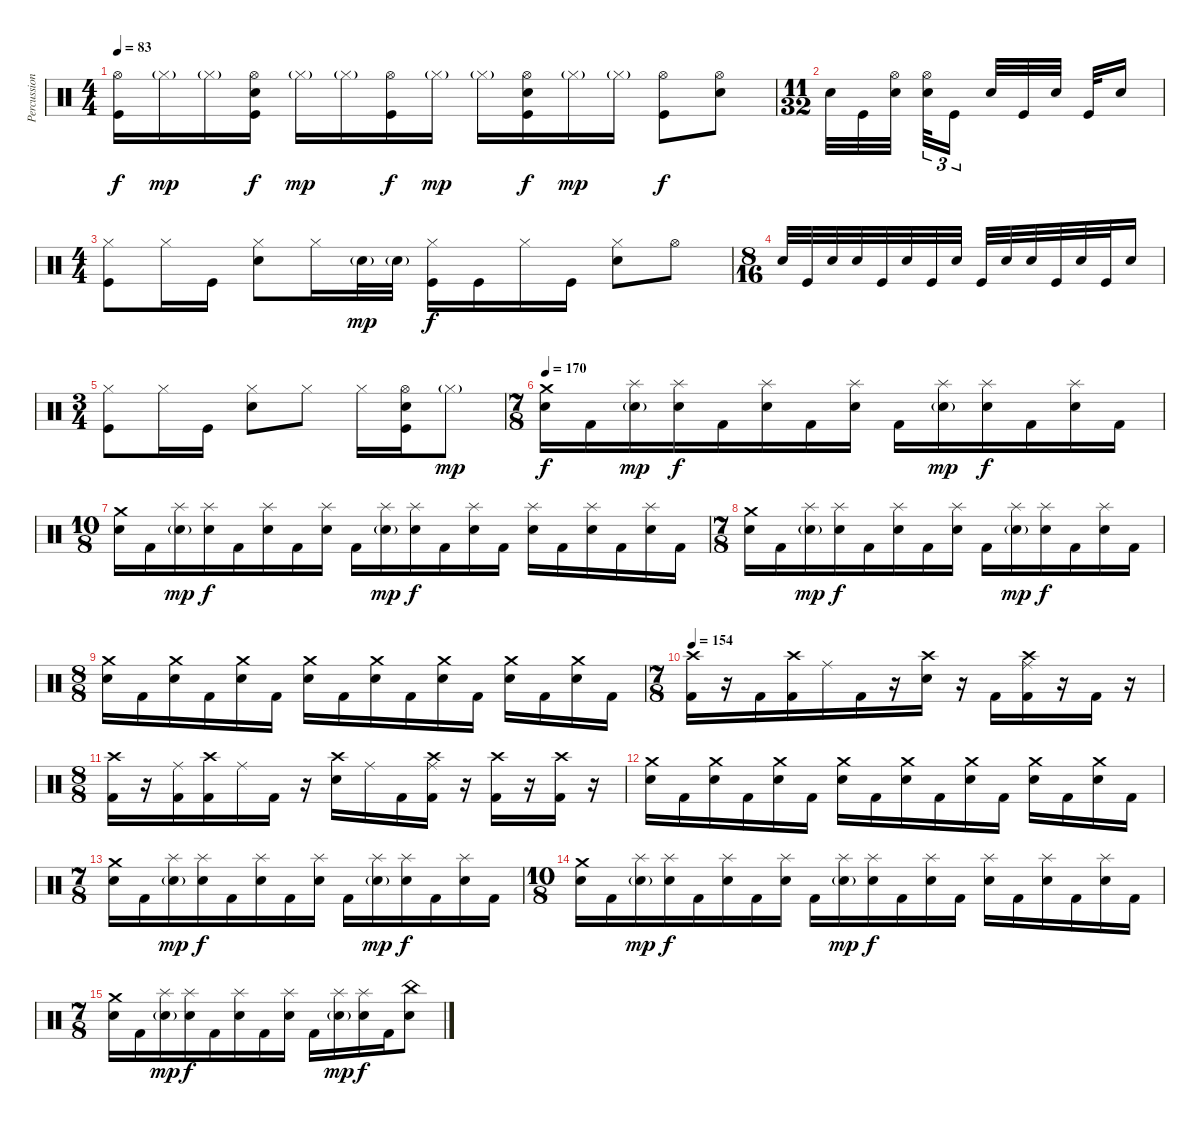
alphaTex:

\track ("Percussion" "Percussion") {instrument percussion}
\staff {score}
\articulation defaults
\ts (4 4)
\tempo 83
\clef neutral
\ks c
("Hi-Hat (open)" "Kick (hit)").16{dy f} "Hi-Hat (closed)"{g}.16{dy mp} "Hi-Hat (closed)"{g}.16 ("Hi-Hat (open)" "Snare (hit) 2" "Kick (hit)").16{dy f} "Hi-Hat (closed)"{g}.16{dy mp} "Hi-Hat (closed)"{g}.16 ("Hi-Hat (open)" "Kick (hit)").16{dy f} "Hi-Hat (closed)"{g}.16{dy mp} "Hi-Hat (closed)"{g}.16 ("Hi-Hat (open)" "Snare (hit) 2" "Kick (hit)").16{dy f} "Hi-Hat (closed)"{g}.16{dy mp} "Hi-Hat (closed)"{g}.16 ("Hi-Hat (open)" "Kick (hit)").8{dy f} ("Hi-Hat (open)" "Snare (hit) 2").8 |
\ts (11 32)
"Electric Snare (hit)".32 "Kick (hit)".32 ("Hi-Hat (open)" "Electric Snare (hit)").32 ("Hi-Hat (open)" "Electric Snare (hit)").32{tu (3 2)} "Kick (hit)".16{tu (3 2)} "Electric Snare (hit)".32 "Kick (hit)".32 "Electric Snare (hit)".32 "Kick (hit)".32 "Electric Snare (hit)".16 |
\ts (4 4)
("Hi-Hat (closed)" "Kick (hit)").8 "Hi-Hat (closed)".16 "Kick (hit)".16 ("Hi-Hat (closed)" "Snare (hit) 2").8 "Hi-Hat (closed)".16 "Snare (hit) 2"{g}.32{dy mp} "Snare (hit) 2"{g}.32 ("Hi-Hat (closed)" "Kick (hit)").16{dy f} "Kick (hit)".16 "Hi-Hat (closed)".16 "Kick (hit)".16 ("Hi-Hat (closed)" "Snare (hit) 2").8 "Hi-Hat (open)".8 |
\ts (8 16)
"Electric Snare (hit)".32 "Kick (hit)".32 "Electric Snare (hit)".32 "Electric Snare (hit)".32 "Kick (hit)".32 "Electric Snare (hit)".32 "Kick (hit)".32 "Electric Snare (hit)".32 "Kick (hit)".32 "Electric Snare (hit)".32 "Electric Snare (hit)".32 "Kick (hit)".32 "Electric Snare (hit)".32 "Kick (hit)".32 "Electric Snare (hit)".16 |
\ts (3 4)
("Hi-Hat (closed)" "Kick (hit)").8 "Hi-Hat (closed)".16 "Kick (hit)".16 ("Hi-Hat (closed)" "Snare (hit) 2").8 "Hi-Hat (closed)".8 "Hi-Hat (closed)".16 ("Hi-Hat (open)" "Snare (hit) 2" "Kick (hit)").16 "Hi-Hat (closed)"{g}.8{dy mp} |
\ts (7 8)
\tempo 170
("Crash medium (hit)" "Electric Snare (hit)").16{dy f} "Kick (hit) 2".16 ("Splash (hit)" "Electric Snare (hit)"{g}).16{dy mp} ("Splash (hit)" "Electric Snare (hit)").16{dy f} "Kick (hit) 2".16 ("Splash (hit)" "Electric Snare (hit)").16 "Kick (hit) 2".16 ("Splash (hit)" "Electric Snare (hit)").16 "Kick (hit) 2".16 ("Splash (hit)" "Electric Snare (hit)"{g}).16{dy mp} ("Splash (hit)" "Electric Snare (hit)").16{dy f} "Kick (hit) 2".16 ("Splash (hit)" "Electric Snare (hit)").16 "Kick (hit) 2".16 |
\ts (10 8)
("Crash medium (hit)" "Electric Snare (hit)").16 "Kick (hit) 2".16 ("Splash (hit)" "Electric Snare (hit)"{g}).16{dy mp} ("Splash (hit)" "Electric Snare (hit)").16{dy f} "Kick (hit) 2".16 ("Splash (hit)" "Electric Snare (hit)").16 "Kick (hit) 2".16 ("Splash (hit)" "Electric Snare (hit)").16 "Kick (hit) 2".16 ("Splash (hit)" "Electric Snare (hit)"{g}).16{dy mp} ("Splash (hit)" "Electric Snare (hit)").16{dy f} "Kick (hit) 2".16 ("Splash (hit)" "Electric Snare (hit)").16 "Kick (hit) 2".16 ("Splash (hit)" "Electric Snare (hit)").16 "Kick (hit) 2".16 ("Splash (hit)" "Electric Snare (hit)").16 "Kick (hit) 2".16 ("Splash (hit)" "Electric Snare (hit)").16 "Kick (hit) 2".16 |
\ts (7 8)
("Crash medium (hit)" "Electric Snare (hit)").16 "Kick (hit) 2".16 ("Splash (hit)" "Electric Snare (hit)"{g}).16{dy mp} ("Splash (hit)" "Electric Snare (hit)").16{dy f} "Kick (hit) 2".16 ("Splash (hit)" "Electric Snare (hit)").16 "Kick (hit) 2".16 ("Splash (hit)" "Electric Snare (hit)").16 "Kick (hit) 2".16 ("Splash (hit)" "Electric Snare (hit)"{g}).16{dy mp} ("Splash (hit)" "Electric Snare (hit)").16{dy f} "Kick (hit) 2".16 ("Splash (hit)" "Electric Snare (hit)").16 "Kick (hit) 2".16 |
\ts (8 8)
("Crash medium (hit)" "Electric Snare (hit)").16 "Kick (hit) 2".16 ("Crash medium (hit)" "Electric Snare (hit)").16 "Kick (hit) 2".16 ("Crash medium (hit)" "Electric Snare (hit)").16 "Kick (hit) 2".16 ("Crash medium (hit)" "Electric Snare (hit)").16 "Kick (hit) 2".16 ("Crash medium (hit)" "Electric Snare (hit)").16 "Kick (hit) 2".16 ("Crash medium (hit)" "Electric Snare (hit)").16 "Kick (hit) 2".16 ("Crash medium (hit)" "Electric Snare (hit)").16 "Kick (hit) 2".16 ("Crash medium (hit)" "Electric Snare (hit)").16 "Kick (hit) 2".16 |
\ts (7 8)
\tempo 154
("Crash high (hit)" "Kick (hit) 2").16 r.16 "Kick (hit) 2".16 ("Crash high (hit)" "Kick (hit) 2").16 "Ride (middle)".16 "Kick (hit) 2".16 r.16 ("Crash high (hit)" "Electric Snare (hit)").16 r.16 "Kick (hit) 2".16 ("Crash high (hit)" "Ride (middle)" "Kick (hit) 2").16 r.16 "Kick (hit) 2".16 r.16 |
\ts (8 8)
("Crash high (hit)" "Kick (hit) 2").16 r.16 ("Ride (middle)" "Kick (hit) 2").16 ("Crash high (hit)" "Kick (hit) 2").16 "Ride (middle)".16 "Kick (hit) 2".16 r.16 ("Crash high (hit)" "Electric Snare (hit)").16 "Ride (middle)".16 "Kick (hit) 2".16 ("Crash high (hit)" "Ride (middle)" "Kick (hit) 2").16 r.16 ("Crash high (hit)" "Kick (hit) 2").16 r.16 ("Crash high (hit)" "Kick (hit) 2").16 r.16 |
("Crash medium (hit)" "Electric Snare (hit)").16 "Kick (hit) 2".16 ("Crash medium (hit)" "Electric Snare (hit)").16 "Kick (hit) 2".16 ("Crash medium (hit)" "Electric Snare (hit)").16 "Kick (hit) 2".16 ("Crash medium (hit)" "Electric Snare (hit)").16 "Kick (hit) 2".16 ("Crash medium (hit)" "Electric Snare (hit)").16 "Kick (hit) 2".16 ("Crash medium (hit)" "Electric Snare (hit)").16 "Kick (hit) 2".16 ("Crash medium (hit)" "Electric Snare (hit)").16 "Kick (hit) 2".16 ("Crash medium (hit)" "Electric Snare (hit)").16 "Kick (hit) 2".16 |
\ts (7 8)
("Crash medium (hit)" "Electric Snare (hit)").16 "Kick (hit) 2".16 ("Splash (hit)" "Electric Snare (hit)"{g}).16{dy mp} ("Splash (hit)" "Electric Snare (hit)").16{dy f} "Kick (hit) 2".16 ("Splash (hit)" "Electric Snare (hit)").16 "Kick (hit) 2".16 ("Splash (hit)" "Electric Snare (hit)").16 "Kick (hit) 2".16 ("Splash (hit)" "Electric Snare (hit)"{g}).16{dy mp} ("Splash (hit)" "Electric Snare (hit)").16{dy f} "Kick (hit) 2".16 ("Splash (hit)" "Electric Snare (hit)").16 "Kick (hit) 2".16 |
\ts (10 8)
("Crash medium (hit)" "Electric Snare (hit)").16 "Kick (hit) 2".16 ("Splash (hit)" "Electric Snare (hit)"{g}).16{dy mp} ("Splash (hit)" "Electric Snare (hit)").16{dy f} "Kick (hit) 2".16 ("Splash (hit)" "Electric Snare (hit)").16 "Kick (hit) 2".16 ("Splash (hit)" "Electric Snare (hit)").16 "Kick (hit) 2".16 ("Splash (hit)" "Electric Snare (hit)"{g}).16{dy mp} ("Splash (hit)" "Electric Snare (hit)").16{dy f} "Kick (hit) 2".16 ("Splash (hit)" "Electric Snare (hit)").16 "Kick (hit) 2".16 ("Splash (hit)" "Electric Snare (hit)").16 "Kick (hit) 2".16 ("Splash (hit)" "Electric Snare (hit)").16 "Kick (hit) 2".16 ("Splash (hit)" "Electric Snare (hit)").16 "Kick (hit) 2".16 |
\ts (7 8)
("Crash medium (hit)" "Electric Snare (hit)").16 "Kick (hit) 2".16 ("Splash (hit)" "Electric Snare (hit)"{g}).16{dy mp} ("Splash (hit)" "Electric Snare (hit)").16{dy f} "Kick (hit) 2".16 ("Splash (hit)" "Electric Snare (hit)").16 "Kick (hit) 2".16 ("Splash (hit)" "Electric Snare (hit)").16 "Kick (hit) 2".16 ("Splash (hit)" "Electric Snare (hit)"{g}).16{dy mp} ("Splash (hit)" "Electric Snare (hit)").16{dy f} "Kick (hit) 2".16 ("China (hit)" "Electric Snare (hit)").8
